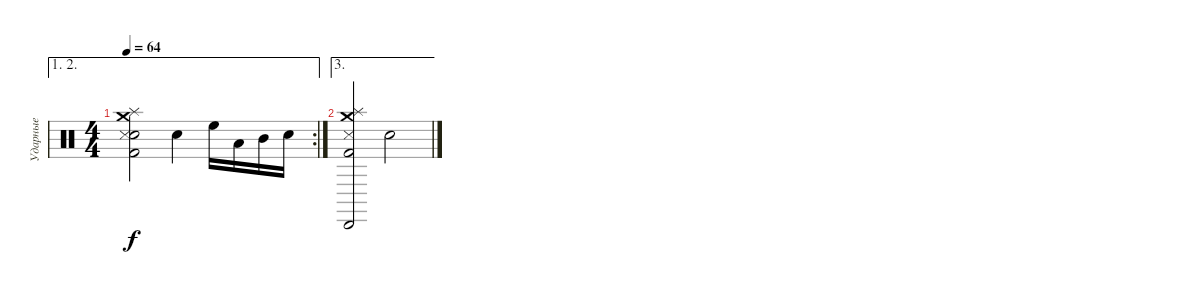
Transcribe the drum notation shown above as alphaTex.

\track ("Ударные" "Ударные") {instrument percussion}
\staff {score}
\articulation defaults
\ae (1 2)
\rc 2
\ts (4 4)
\tempo 64
\clef neutral
\ks c
("Snare (hit) 2" "Splash (hit)" "Kick (hit) 2" "Snare (side stick) 3" "Crash medium (hit)").2{dy f} "Snare (hit) 2".4 "High Floor Tom (hit)".16 "Low Tom (hit)".16 "Mid Tom (hit)".16 "Snare (hit) 2".16 |
\ae 3
("Cabasa (hit)" "Splash (hit)" "Kick (hit) 2" "Snare (side stick) 3" "Crash medium (hit)").2 "Snare (hit) 2".2
